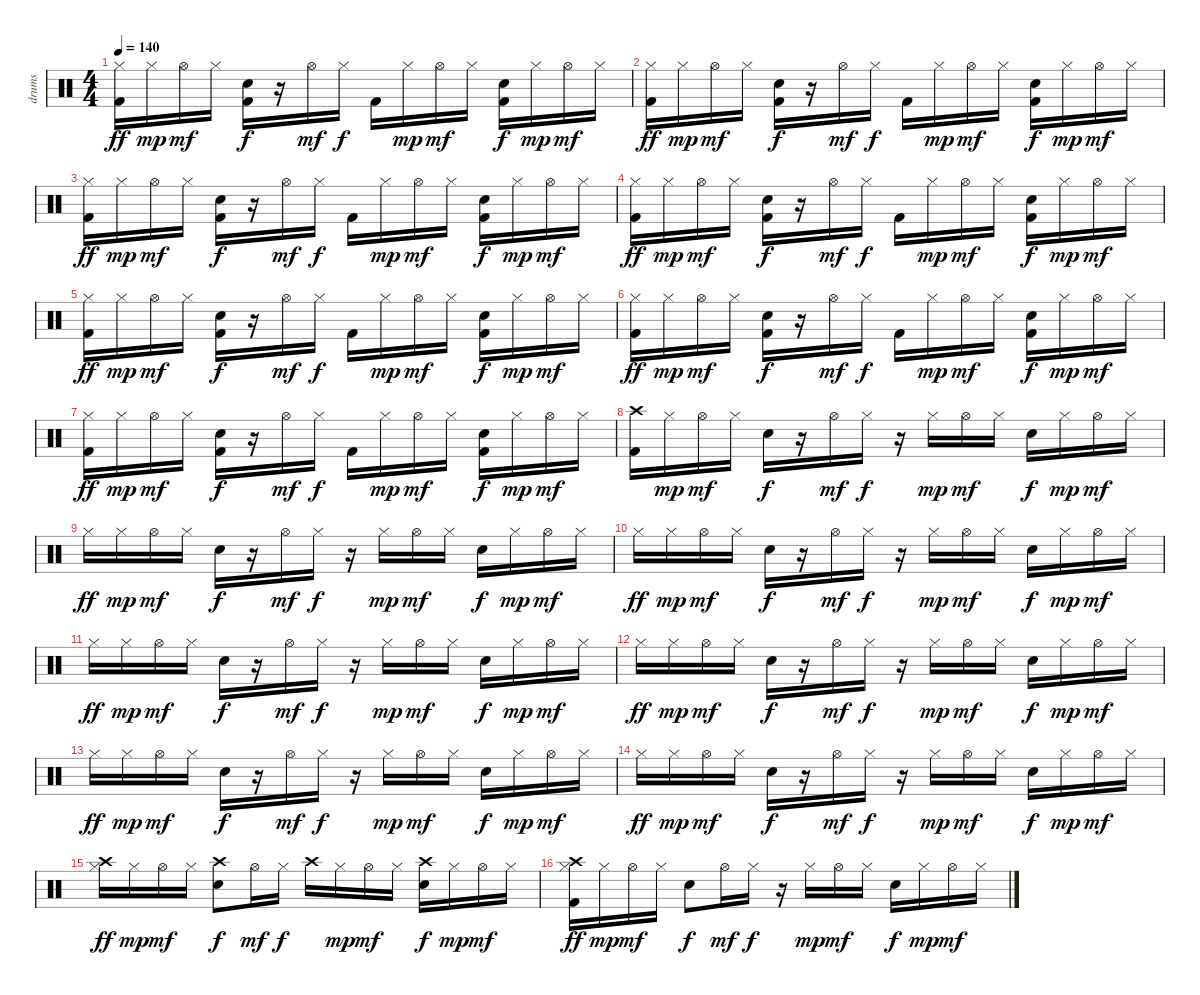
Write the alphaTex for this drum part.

\track ("drums" "drums") {instrument percussion}
\staff {score}
\articulation defaults
\ts (4 4)
\tempo 140
\clef neutral
\ks c
("Kick (hit) 2" "Hi-Hat (closed)").16{dy ff} "Hi-Hat (closed)".16{dy mp} "Hi-Hat (open)".16{dy mf} "Hi-Hat (closed)".16 ("Kick (hit) 2" "Hand Clap (hit)").16{dy f} r.16 "Hi-Hat (open)".16{dy mf} "Hi-Hat (closed)".16{dy f} "Kick (hit) 2".16 "Hi-Hat (closed)".16{dy mp} "Hi-Hat (open)".16{dy mf} "Hi-Hat (closed)".16 ("Kick (hit) 2" "Hand Clap (hit)").16{dy f} "Hi-Hat (closed)".16{dy mp} "Hi-Hat (open)".16{dy mf} "Hi-Hat (closed)".16 |
("Kick (hit) 2" "Hi-Hat (closed)").16{dy ff} "Hi-Hat (closed)".16{dy mp} "Hi-Hat (open)".16{dy mf} "Hi-Hat (closed)".16 ("Kick (hit) 2" "Hand Clap (hit)").16{dy f} r.16 "Hi-Hat (open)".16{dy mf} "Hi-Hat (closed)".16{dy f} "Kick (hit) 2".16 "Hi-Hat (closed)".16{dy mp} "Hi-Hat (open)".16{dy mf} "Hi-Hat (closed)".16 ("Kick (hit) 2" "Hand Clap (hit)").16{dy f} "Hi-Hat (closed)".16{dy mp} "Hi-Hat (open)".16{dy mf} "Hi-Hat (closed)".16 |
("Kick (hit) 2" "Hi-Hat (closed)").16{dy ff} "Hi-Hat (closed)".16{dy mp} "Hi-Hat (open)".16{dy mf} "Hi-Hat (closed)".16 ("Kick (hit) 2" "Hand Clap (hit)").16{dy f} r.16 "Hi-Hat (open)".16{dy mf} "Hi-Hat (closed)".16{dy f} "Kick (hit) 2".16 "Hi-Hat (closed)".16{dy mp} "Hi-Hat (open)".16{dy mf} "Hi-Hat (closed)".16 ("Kick (hit) 2" "Hand Clap (hit)").16{dy f} "Hi-Hat (closed)".16{dy mp} "Hi-Hat (open)".16{dy mf} "Hi-Hat (closed)".16 |
("Kick (hit) 2" "Hi-Hat (closed)").16{dy ff} "Hi-Hat (closed)".16{dy mp} "Hi-Hat (open)".16{dy mf} "Hi-Hat (closed)".16 ("Kick (hit) 2" "Hand Clap (hit)").16{dy f} r.16 "Hi-Hat (open)".16{dy mf} "Hi-Hat (closed)".16{dy f} "Kick (hit) 2".16 "Hi-Hat (closed)".16{dy mp} "Hi-Hat (open)".16{dy mf} "Hi-Hat (closed)".16 ("Kick (hit) 2" "Hand Clap (hit)").16{dy f} "Hi-Hat (closed)".16{dy mp} "Hi-Hat (open)".16{dy mf} "Hi-Hat (closed)".16 |
("Kick (hit) 2" "Hi-Hat (closed)").16{dy ff} "Hi-Hat (closed)".16{dy mp} "Hi-Hat (open)".16{dy mf} "Hi-Hat (closed)".16 ("Kick (hit) 2" "Hand Clap (hit)").16{dy f} r.16 "Hi-Hat (open)".16{dy mf} "Hi-Hat (closed)".16{dy f} "Kick (hit) 2".16 "Hi-Hat (closed)".16{dy mp} "Hi-Hat (open)".16{dy mf} "Hi-Hat (closed)".16 ("Kick (hit) 2" "Hand Clap (hit)").16{dy f} "Hi-Hat (closed)".16{dy mp} "Hi-Hat (open)".16{dy mf} "Hi-Hat (closed)".16 |
("Kick (hit) 2" "Hi-Hat (closed)").16{dy ff} "Hi-Hat (closed)".16{dy mp} "Hi-Hat (open)".16{dy mf} "Hi-Hat (closed)".16 ("Kick (hit) 2" "Hand Clap (hit)").16{dy f} r.16 "Hi-Hat (open)".16{dy mf} "Hi-Hat (closed)".16{dy f} "Kick (hit) 2".16 "Hi-Hat (closed)".16{dy mp} "Hi-Hat (open)".16{dy mf} "Hi-Hat (closed)".16 ("Kick (hit) 2" "Hand Clap (hit)").16{dy f} "Hi-Hat (closed)".16{dy mp} "Hi-Hat (open)".16{dy mf} "Hi-Hat (closed)".16 |
("Kick (hit) 2" "Hi-Hat (closed)").16{dy ff} "Hi-Hat (closed)".16{dy mp} "Hi-Hat (open)".16{dy mf} "Hi-Hat (closed)".16 ("Kick (hit) 2" "Hand Clap (hit)").16{dy f} r.16 "Hi-Hat (open)".16{dy mf} "Hi-Hat (closed)".16{dy f} "Kick (hit) 2".16 "Hi-Hat (closed)".16{dy mp} "Hi-Hat (open)".16{dy mf} "Hi-Hat (closed)".16 ("Kick (hit) 2" "Hand Clap (hit)").16{dy f} "Hi-Hat (closed)".16{dy mp} "Hi-Hat (open)".16{dy mf} "Hi-Hat (closed)".16 |
("Kick (hit) 2" "Crash high (hit)").16 "Hi-Hat (closed)".16{dy mp} "Hi-Hat (open)".16{dy mf} "Hi-Hat (closed)".16 "Hand Clap (hit)".16{dy f} r.16 "Hi-Hat (open)".16{dy mf} "Hi-Hat (closed)".16{dy f} r.16 "Hi-Hat (closed)".16{dy mp} "Hi-Hat (open)".16{dy mf} "Hi-Hat (closed)".16 "Hand Clap (hit)".16{dy f} "Hi-Hat (closed)".16{dy mp} "Hi-Hat (open)".16{dy mf} "Hi-Hat (closed)".16 |
"Hi-Hat (closed)".16{dy ff} "Hi-Hat (closed)".16{dy mp} "Hi-Hat (open)".16{dy mf} "Hi-Hat (closed)".16 "Hand Clap (hit)".16{dy f} r.16 "Hi-Hat (open)".16{dy mf} "Hi-Hat (closed)".16{dy f} r.16 "Hi-Hat (closed)".16{dy mp} "Hi-Hat (open)".16{dy mf} "Hi-Hat (closed)".16 "Hand Clap (hit)".16{dy f} "Hi-Hat (closed)".16{dy mp} "Hi-Hat (open)".16{dy mf} "Hi-Hat (closed)".16 |
"Hi-Hat (closed)".16{dy ff} "Hi-Hat (closed)".16{dy mp} "Hi-Hat (open)".16{dy mf} "Hi-Hat (closed)".16 "Hand Clap (hit)".16{dy f} r.16 "Hi-Hat (open)".16{dy mf} "Hi-Hat (closed)".16{dy f} r.16 "Hi-Hat (closed)".16{dy mp} "Hi-Hat (open)".16{dy mf} "Hi-Hat (closed)".16 "Hand Clap (hit)".16{dy f} "Hi-Hat (closed)".16{dy mp} "Hi-Hat (open)".16{dy mf} "Hi-Hat (closed)".16 |
"Hi-Hat (closed)".16{dy ff} "Hi-Hat (closed)".16{dy mp} "Hi-Hat (open)".16{dy mf} "Hi-Hat (closed)".16 "Hand Clap (hit)".16{dy f} r.16 "Hi-Hat (open)".16{dy mf} "Hi-Hat (closed)".16{dy f} r.16 "Hi-Hat (closed)".16{dy mp} "Hi-Hat (open)".16{dy mf} "Hi-Hat (closed)".16 "Hand Clap (hit)".16{dy f} "Hi-Hat (closed)".16{dy mp} "Hi-Hat (open)".16{dy mf} "Hi-Hat (closed)".16 |
"Hi-Hat (closed)".16{dy ff} "Hi-Hat (closed)".16{dy mp} "Hi-Hat (open)".16{dy mf} "Hi-Hat (closed)".16 "Hand Clap (hit)".16{dy f} r.16 "Hi-Hat (open)".16{dy mf} "Hi-Hat (closed)".16{dy f} r.16 "Hi-Hat (closed)".16{dy mp} "Hi-Hat (open)".16{dy mf} "Hi-Hat (closed)".16 "Hand Clap (hit)".16{dy f} "Hi-Hat (closed)".16{dy mp} "Hi-Hat (open)".16{dy mf} "Hi-Hat (closed)".16 |
"Hi-Hat (closed)".16{dy ff} "Hi-Hat (closed)".16{dy mp} "Hi-Hat (open)".16{dy mf} "Hi-Hat (closed)".16 "Hand Clap (hit)".16{dy f} r.16 "Hi-Hat (open)".16{dy mf} "Hi-Hat (closed)".16{dy f} r.16 "Hi-Hat (closed)".16{dy mp} "Hi-Hat (open)".16{dy mf} "Hi-Hat (closed)".16 "Hand Clap (hit)".16{dy f} "Hi-Hat (closed)".16{dy mp} "Hi-Hat (open)".16{dy mf} "Hi-Hat (closed)".16 |
"Hi-Hat (closed)".16{dy ff} "Hi-Hat (closed)".16{dy mp} "Hi-Hat (open)".16{dy mf} "Hi-Hat (closed)".16 "Hand Clap (hit)".16{dy f} r.16 "Hi-Hat (open)".16{dy mf} "Hi-Hat (closed)".16{dy f} r.16 "Hi-Hat (closed)".16{dy mp} "Hi-Hat (open)".16{dy mf} "Hi-Hat (closed)".16 "Hand Clap (hit)".16{dy f} "Hi-Hat (closed)".16{dy mp} "Hi-Hat (open)".16{dy mf} "Hi-Hat (closed)".16 |
("Crash high (hit)" "Hi-Hat (closed)").16{dy ff} "Hi-Hat (closed)".16{dy mp} "Hi-Hat (open)".16{dy mf} "Hi-Hat (closed)".16 ("Hand Clap (hit)" "Crash high (hit)").8{dy f} "Hi-Hat (open)".16{dy mf} "Hi-Hat (closed)".16{dy f} "Crash high (hit)".16 "Hi-Hat (closed)".16{dy mp} "Hi-Hat (open)".16{dy mf} "Hi-Hat (closed)".16 ("Hand Clap (hit)" "Crash high (hit)").16{dy f} "Hi-Hat (closed)".16{dy mp} "Hi-Hat (open)".16{dy mf} "Hi-Hat (closed)".16 |
("Kick (hit) 2" "Crash high (hit)" "Hi-Hat (closed)").16{dy ff} "Hi-Hat (closed)".16{dy mp} "Hi-Hat (open)".16{dy mf} "Hi-Hat (closed)".16 "Hand Clap (hit)".8{dy f} "Hi-Hat (open)".16{dy mf} "Hi-Hat (closed)".16{dy f} r.16 "Hi-Hat (closed)".16{dy mp} "Hi-Hat (open)".16{dy mf} "Hi-Hat (closed)".16 "Hand Clap (hit)".16{dy f} "Hi-Hat (closed)".16{dy mp} "Hi-Hat (open)".16{dy mf} "Hi-Hat (closed)".16
